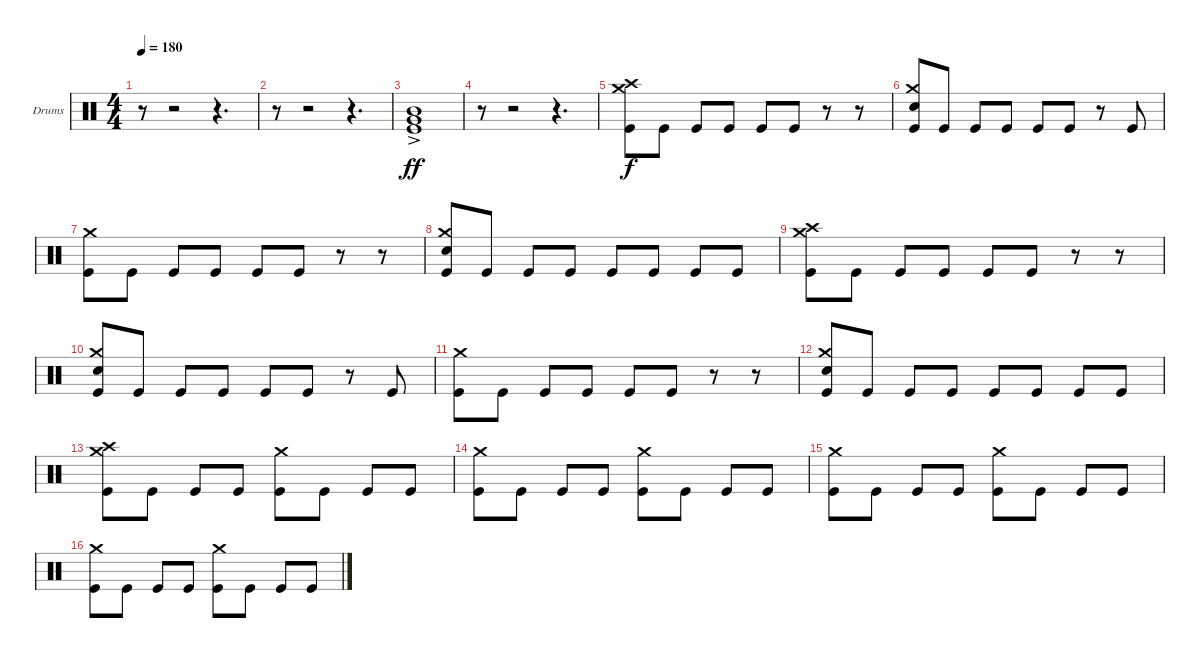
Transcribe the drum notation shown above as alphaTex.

\bracketExtendMode groupsimilarinstruments
\firstSystemTrackNameOrientation horizontal
\otherSystemsTrackNameOrientation horizontal
\track ("Drumkit" "Drums") {instrument percussion}
\staff {score}
\articulation defaults
\ts (4 4)
\tempo 180
\clef neutral
\ks c
r.8{dy f} r.2 r.4{d} |
r.8 r.2 r.4{d} |
("Very Low Tom (hit)"{ac} "Mid Tom (hit)"{ac} "Kick (hit)"{ac}).1{dy ff} |
r.8 r.2 r.4{d} |
("Crash high (hit)" "Crash medium (hit)" "Kick (hit)").8{dy f} "Kick (hit)".8 "Kick (hit)".8 "Kick (hit)".8 "Kick (hit)".8 "Kick (hit)".8 r.8 r.8 |
("Crash medium (hit)" "Snare (hit) 2" "Kick (hit)").8 "Kick (hit)".8 "Kick (hit)".8 "Kick (hit)".8 "Kick (hit)".8 "Kick (hit)".8 r.8 "Kick (hit)".8 |
("Crash medium (hit)" "Kick (hit)").8 "Kick (hit)".8 "Kick (hit)".8 "Kick (hit)".8 "Kick (hit)".8 "Kick (hit)".8 r.8 r.8 |
("Crash medium (hit)" "Snare (hit) 2" "Kick (hit)").8 "Kick (hit)".8 "Kick (hit)".8 "Kick (hit)".8 "Kick (hit)".8 "Kick (hit)".8 "Kick (hit)".8 "Kick (hit)".8 |
("Crash high (hit)" "Crash medium (hit)" "Kick (hit)").8 "Kick (hit)".8 "Kick (hit)".8 "Kick (hit)".8 "Kick (hit)".8 "Kick (hit)".8 r.8 r.8 |
("Crash medium (hit)" "Snare (hit) 2" "Kick (hit)").8 "Kick (hit)".8 "Kick (hit)".8 "Kick (hit)".8 "Kick (hit)".8 "Kick (hit)".8 r.8 "Kick (hit)".8 |
("Crash medium (hit)" "Kick (hit)").8 "Kick (hit)".8 "Kick (hit)".8 "Kick (hit)".8 "Kick (hit)".8 "Kick (hit)".8 r.8 r.8 |
("Crash medium (hit)" "Snare (hit) 2" "Kick (hit)").8 "Kick (hit)".8 "Kick (hit)".8 "Kick (hit)".8 "Kick (hit)".8 "Kick (hit)".8 "Kick (hit)".8 "Kick (hit)".8 |
("Crash high (hit)" "Crash medium (hit)" "Kick (hit)").8 "Kick (hit)".8 "Kick (hit)".8 "Kick (hit)".8 ("Crash medium (hit)" "Kick (hit)").8 "Kick (hit)".8 "Kick (hit)".8 "Kick (hit)".8 |
("Crash medium (hit)" "Kick (hit)").8 "Kick (hit)".8 "Kick (hit)".8 "Kick (hit)".8 ("Crash medium (hit)" "Kick (hit)").8 "Kick (hit)".8 "Kick (hit)".8 "Kick (hit)".8 |
("Crash medium (hit)" "Kick (hit)").8 "Kick (hit)".8 "Kick (hit)".8 "Kick (hit)".8 ("Crash medium (hit)" "Kick (hit)").8 "Kick (hit)".8 "Kick (hit)".8 "Kick (hit)".8 |
("Crash medium (hit)" "Kick (hit)").8 "Kick (hit)".8 "Kick (hit)".8 "Kick (hit)".8 ("Crash medium (hit)" "Kick (hit)").8 "Kick (hit)".8 "Kick (hit)".8 "Kick (hit)".8
